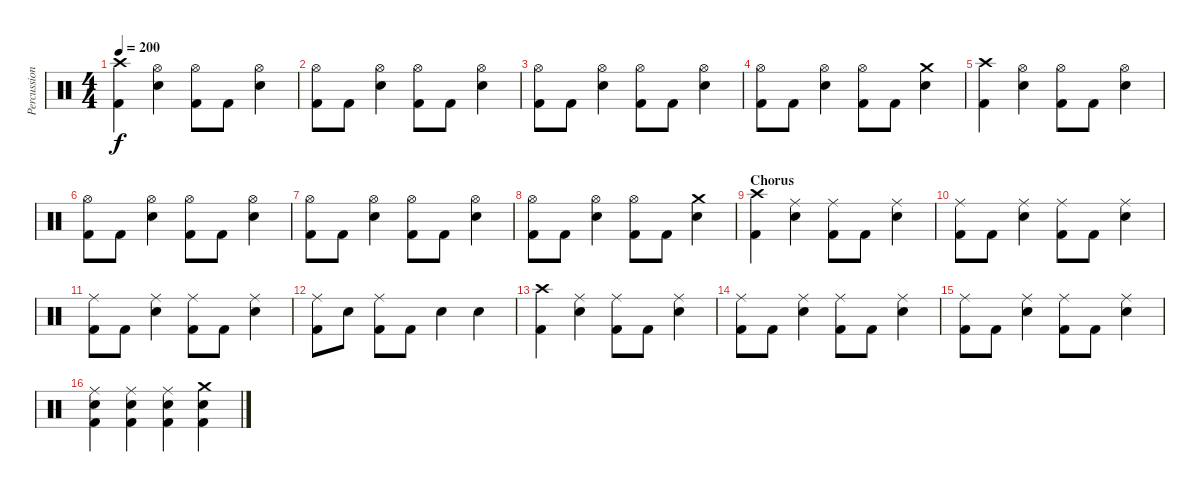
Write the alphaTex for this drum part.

\track ("Percussion" "Percussion") {instrument percussion}
\staff {score}
\articulation defaults
\ts (4 4)
\tempo 200
\clef neutral
\ks c
("Crash high (hit)" "Kick (hit) 2").4{dy f} ("Hi-Hat (open)" "Snare (hit) 2").4 ("Hi-Hat (open)" "Kick (hit) 2").8 "Kick (hit) 2".8 ("Hi-Hat (open)" "Snare (hit) 2").4 |
("Hi-Hat (open)" "Kick (hit) 2").8 "Kick (hit) 2".8 ("Hi-Hat (open)" "Snare (hit) 2").4 ("Hi-Hat (open)" "Kick (hit) 2").8 "Kick (hit) 2".8 ("Hi-Hat (open)" "Snare (hit) 2").4 |
("Hi-Hat (open)" "Kick (hit) 2").8 "Kick (hit) 2".8 ("Hi-Hat (open)" "Snare (hit) 2").4 ("Hi-Hat (open)" "Kick (hit) 2").8 "Kick (hit) 2".8 ("Hi-Hat (open)" "Snare (hit) 2").4 |
("Hi-Hat (open)" "Kick (hit) 2").8 "Kick (hit) 2".8 ("Hi-Hat (open)" "Snare (hit) 2").4 ("Hi-Hat (open)" "Kick (hit) 2").8 "Kick (hit) 2".8 ("Crash medium (hit)" "Snare (hit) 2").4 |
("Crash high (hit)" "Kick (hit) 2").4 ("Hi-Hat (open)" "Snare (hit) 2").4 ("Hi-Hat (open)" "Kick (hit) 2").8 "Kick (hit) 2".8 ("Hi-Hat (open)" "Snare (hit) 2").4 |
("Hi-Hat (open)" "Kick (hit) 2").8 "Kick (hit) 2".8 ("Hi-Hat (open)" "Snare (hit) 2").4 ("Hi-Hat (open)" "Kick (hit) 2").8 "Kick (hit) 2".8 ("Hi-Hat (open)" "Snare (hit) 2").4 |
("Hi-Hat (open)" "Kick (hit) 2").8 "Kick (hit) 2".8 ("Hi-Hat (open)" "Snare (hit) 2").4 ("Hi-Hat (open)" "Kick (hit) 2").8 "Kick (hit) 2".8 ("Hi-Hat (open)" "Snare (hit) 2").4 |
("Hi-Hat (open)" "Kick (hit) 2").8 "Kick (hit) 2".8 ("Hi-Hat (open)" "Snare (hit) 2").4 ("Hi-Hat (open)" "Kick (hit) 2").8 "Kick (hit) 2".8 ("Crash medium (hit)" "Snare (hit) 2").4 |
\section ("" "Chorus")
("Crash high (hit)" "Kick (hit) 2").4 ("Ride (middle)" "Snare (hit) 2").4 ("Ride (middle)" "Kick (hit) 2").8 "Kick (hit) 2".8 ("Ride (middle)" "Snare (hit) 2").4 |
("Ride (middle)" "Kick (hit) 2").8 "Kick (hit) 2".8 ("Ride (middle)" "Snare (hit) 2").4 ("Ride (middle)" "Kick (hit) 2").8 "Kick (hit) 2".8 ("Ride (middle)" "Snare (hit) 2").4 |
("Ride (middle)" "Kick (hit) 2").8 "Kick (hit) 2".8 ("Ride (middle)" "Snare (hit) 2").4 ("Ride (middle)" "Kick (hit) 2").8 "Kick (hit) 2".8 ("Ride (middle)" "Snare (hit) 2").4 |
("Ride (middle)" "Kick (hit) 2").8 "Snare (hit) 2".8 ("Ride (middle)" "Kick (hit) 2").8 "Kick (hit) 2".8 "Snare (hit) 2".4 "Snare (hit) 2".4 |
("Crash high (hit)" "Kick (hit) 2").4 ("Ride (middle)" "Snare (hit) 2").4 ("Ride (middle)" "Kick (hit) 2").8 "Kick (hit) 2".8 ("Ride (middle)" "Snare (hit) 2").4 |
("Ride (middle)" "Kick (hit) 2").8 "Kick (hit) 2".8 ("Ride (middle)" "Snare (hit) 2").4 ("Ride (middle)" "Kick (hit) 2").8 "Kick (hit) 2".8 ("Ride (middle)" "Snare (hit) 2").4 |
("Ride (middle)" "Kick (hit) 2").8 "Kick (hit) 2".8 ("Ride (middle)" "Snare (hit) 2").4 ("Ride (middle)" "Kick (hit) 2").8 "Kick (hit) 2".8 ("Ride (middle)" "Snare (hit) 2").4 |
("Ride (middle)" "Snare (hit) 2" "Kick (hit) 2").4 ("Ride (middle)" "Snare (hit) 2" "Kick (hit) 2").4 ("Ride (middle)" "Snare (hit) 2" "Kick (hit) 2").4 ("Crash medium (hit)" "Snare (hit) 2" "Kick (hit) 2").4
